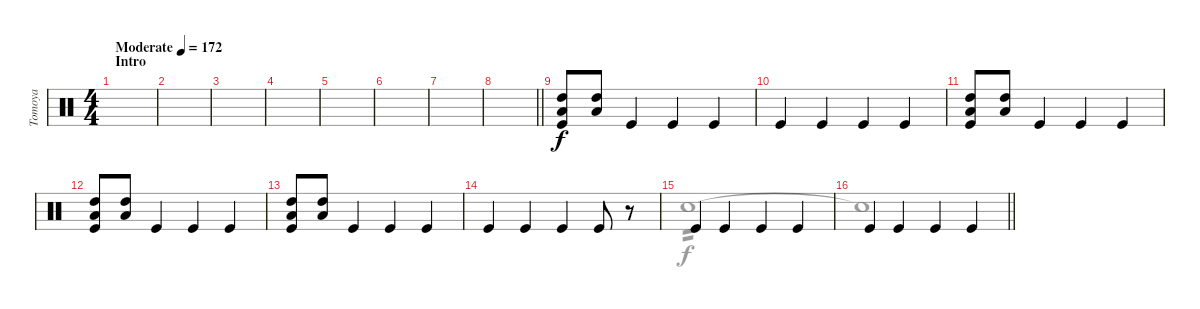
\track ("Tomoya" "Tomoya") {instrument percussion}
\staff {score}
\articulation defaults
\voice
\ts (4 4)
\section ("" "Intro")
\tempo (172 "Moderate")
\clef neutral
\ks c
|
|
|
|
|
|
|
\barLineRight lightlight
|
\section ("" "")
("Kick (hit)" "High Tom (hit)" "Low Tom (hit)").8 ("High Tom (hit)" "Low Tom (hit)").8 "Kick (hit)".4 "Kick (hit)".4 "Kick (hit)".4 |
"Kick (hit)".4 "Kick (hit)".4 "Kick (hit)".4 "Kick (hit)".4 |
("Kick (hit)" "High Tom (hit)" "Low Tom (hit)").8 ("High Tom (hit)" "Low Tom (hit)").8 "Kick (hit)".4 "Kick (hit)".4 "Kick (hit)".4 |
("Kick (hit)" "High Tom (hit)" "Low Tom (hit)").8 ("High Tom (hit)" "Low Tom (hit)").8 "Kick (hit)".4 "Kick (hit)".4 "Kick (hit)".4 |
("Kick (hit)" "High Tom (hit)" "Low Tom (hit)").8 ("High Tom (hit)" "Low Tom (hit)").8 "Kick (hit)".4 "Kick (hit)".4 "Kick (hit)".4 |
"Kick (hit)".4 "Kick (hit)".4 "Kick (hit)".4 "Kick (hit)".8 r.8{volume 0} |
"Kick (hit)".4{volume 13} "Kick (hit)".4 "Kick (hit)".4 "Kick (hit)".4 |
\barLineRight lightlight "Kick (hit)".4 "Kick (hit)".4 "Kick (hit)".4 "Kick (hit)".4
\voice
\clef neutral
\ottava regular
\simile none
\ks c
|
|
|
|
|
|
|
\barLineRight lightlight
|
|
|
|
|
|
|
"Snare (hit) 2".1{tp 2} |
\barLineRight lightlight "Snare (hit)"{t}.1
